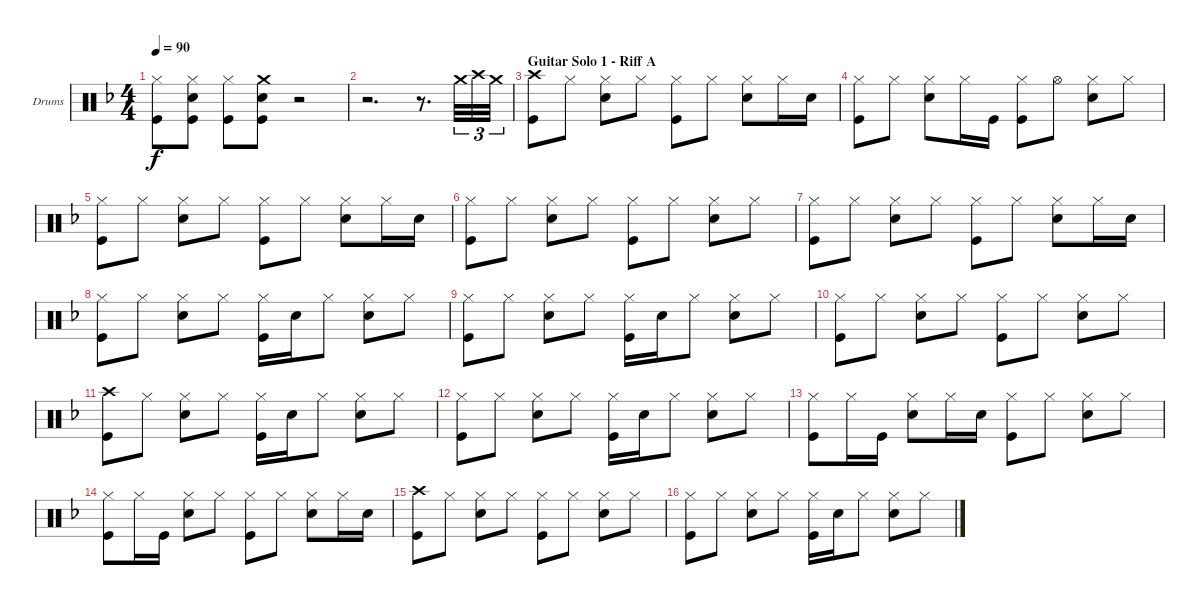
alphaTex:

\bracketExtendMode groupsimilarinstruments
\firstSystemTrackNameOrientation horizontal
\otherSystemsTrackNameOrientation horizontal
\track ("Drumkit" "Drums") {instrument percussion}
\staff {score}
\articulation defaults
\ts (4 4)
\tempo 90
\clef neutral
\ks dminor
("Hi-Hat (closed)" "Kick (hit)").8{dy f} ("Hi-Hat (closed)" "Snare (hit) 2" "Kick (hit)").8 ("Hi-Hat (closed)" "Kick (hit)").8 ("Crash medium (hit)" "Snare (hit) 2" "Kick (hit)").8 r.2 |
r.2{d} r.8{d} "Crash medium (hit)".32{tu (3 2)} "Crash high (hit)".32{tu (3 2)} "Crash medium (hit)".32{tu (3 2)} |
\section ("" "Guitar Solo 1 - Riff A")
("Crash high (hit)" "Kick (hit)").8 "Hi-Hat (closed)".8 ("Hi-Hat (closed)" "Snare (hit) 2").8 "Hi-Hat (closed)".8 ("Hi-Hat (closed)" "Kick (hit)").8 "Hi-Hat (closed)".8 ("Hi-Hat (closed)" "Snare (hit) 2").8 "Hi-Hat (closed)".16 "Snare (hit) 2".16 |
("Hi-Hat (closed)" "Kick (hit)").8 "Hi-Hat (closed)".8 ("Hi-Hat (closed)" "Snare (hit) 2").8 "Hi-Hat (closed)".16 "Kick (hit)".16 ("Hi-Hat (closed)" "Kick (hit)").8 "Hi-Hat (open)".8 ("Hi-Hat (closed)" "Snare (hit) 2").8 "Hi-Hat (closed)".8 |
("Hi-Hat (closed)" "Kick (hit)").8 "Hi-Hat (closed)".8 ("Hi-Hat (closed)" "Snare (hit) 2").8 "Hi-Hat (closed)".8 ("Hi-Hat (closed)" "Kick (hit)").8 "Hi-Hat (closed)".8 ("Hi-Hat (closed)" "Snare (hit) 2").8 "Hi-Hat (closed)".16 "Snare (hit) 2".16 |
("Hi-Hat (closed)" "Kick (hit)").8 "Hi-Hat (closed)".8 ("Hi-Hat (closed)" "Snare (hit) 2").8 "Hi-Hat (closed)".8 ("Hi-Hat (closed)" "Kick (hit)").8 "Hi-Hat (closed)".8 ("Hi-Hat (closed)" "Snare (hit) 2").8 "Hi-Hat (closed)".8 |
("Hi-Hat (closed)" "Kick (hit)").8 "Hi-Hat (closed)".8 ("Hi-Hat (closed)" "Snare (hit) 2").8 "Hi-Hat (closed)".8 ("Hi-Hat (closed)" "Kick (hit)").8 "Hi-Hat (closed)".8 ("Hi-Hat (closed)" "Snare (hit) 2").8 "Hi-Hat (closed)".16 "Snare (hit) 2".16 |
("Hi-Hat (closed)" "Kick (hit)").8 "Hi-Hat (closed)".8 ("Hi-Hat (closed)" "Snare (hit) 2").8 "Hi-Hat (closed)".8 ("Hi-Hat (closed)" "Kick (hit)").16 "Snare (hit) 2".16 "Hi-Hat (closed)".8 ("Hi-Hat (closed)" "Snare (hit) 2").8 "Hi-Hat (closed)".8 |
("Hi-Hat (closed)" "Kick (hit)").8 "Hi-Hat (closed)".8 ("Hi-Hat (closed)" "Snare (hit) 2").8 "Hi-Hat (closed)".8 ("Hi-Hat (closed)" "Kick (hit)").16 "Snare (hit) 2".16 "Hi-Hat (closed)".8 ("Hi-Hat (closed)" "Snare (hit) 2").8 "Hi-Hat (closed)".8 |
("Hi-Hat (closed)" "Kick (hit)").8 "Hi-Hat (closed)".8 ("Hi-Hat (closed)" "Snare (hit) 2").8 "Hi-Hat (closed)".8 ("Hi-Hat (closed)" "Kick (hit)").8 "Hi-Hat (closed)".8 ("Hi-Hat (closed)" "Snare (hit) 2").8 "Hi-Hat (closed)".8 |
("Crash high (hit)" "Kick (hit)").8 "Hi-Hat (closed)".8 ("Hi-Hat (closed)" "Snare (hit) 2").8 "Hi-Hat (closed)".8 ("Hi-Hat (closed)" "Kick (hit)").16 "Snare (hit) 2".16 "Hi-Hat (closed)".8 ("Hi-Hat (closed)" "Snare (hit) 2").8 "Hi-Hat (closed)".8 |
("Hi-Hat (closed)" "Kick (hit)").8 "Hi-Hat (closed)".8 ("Hi-Hat (closed)" "Snare (hit) 2").8 "Hi-Hat (closed)".8 ("Hi-Hat (closed)" "Kick (hit)").16 "Snare (hit) 2".16 "Hi-Hat (closed)".8 ("Hi-Hat (closed)" "Snare (hit) 2").8 "Hi-Hat (closed)".8 |
("Hi-Hat (closed)" "Kick (hit)").8 "Hi-Hat (closed)".16 "Kick (hit)".16 ("Hi-Hat (closed)" "Snare (hit) 2").8 "Hi-Hat (closed)".16 "Snare (hit) 2".16 ("Hi-Hat (closed)" "Kick (hit)").8 "Hi-Hat (closed)".8 ("Hi-Hat (closed)" "Snare (hit) 2").8 "Hi-Hat (closed)".8 |
("Hi-Hat (closed)" "Kick (hit)").8 "Hi-Hat (closed)".16 "Kick (hit)".16 ("Hi-Hat (closed)" "Snare (hit) 2").8 "Hi-Hat (closed)".8 ("Hi-Hat (closed)" "Kick (hit)").8 "Hi-Hat (closed)".8 ("Hi-Hat (closed)" "Snare (hit) 2").8 "Hi-Hat (closed)".16 "Snare (hit) 2".16 |
("Crash high (hit)" "Kick (hit)").8 "Hi-Hat (closed)".8 ("Hi-Hat (closed)" "Snare (hit) 2").8 "Hi-Hat (closed)".8 ("Hi-Hat (closed)" "Kick (hit)").8 "Hi-Hat (closed)".8 ("Hi-Hat (closed)" "Snare (hit) 2").8 "Hi-Hat (closed)".8 |
("Hi-Hat (closed)" "Kick (hit)").8 "Hi-Hat (closed)".8 ("Hi-Hat (closed)" "Snare (hit) 2").8 "Hi-Hat (closed)".8 ("Hi-Hat (closed)" "Kick (hit)").16 "Snare (hit) 2".16 "Hi-Hat (closed)".8 ("Hi-Hat (closed)" "Snare (hit) 2").8 "Hi-Hat (closed)".8
